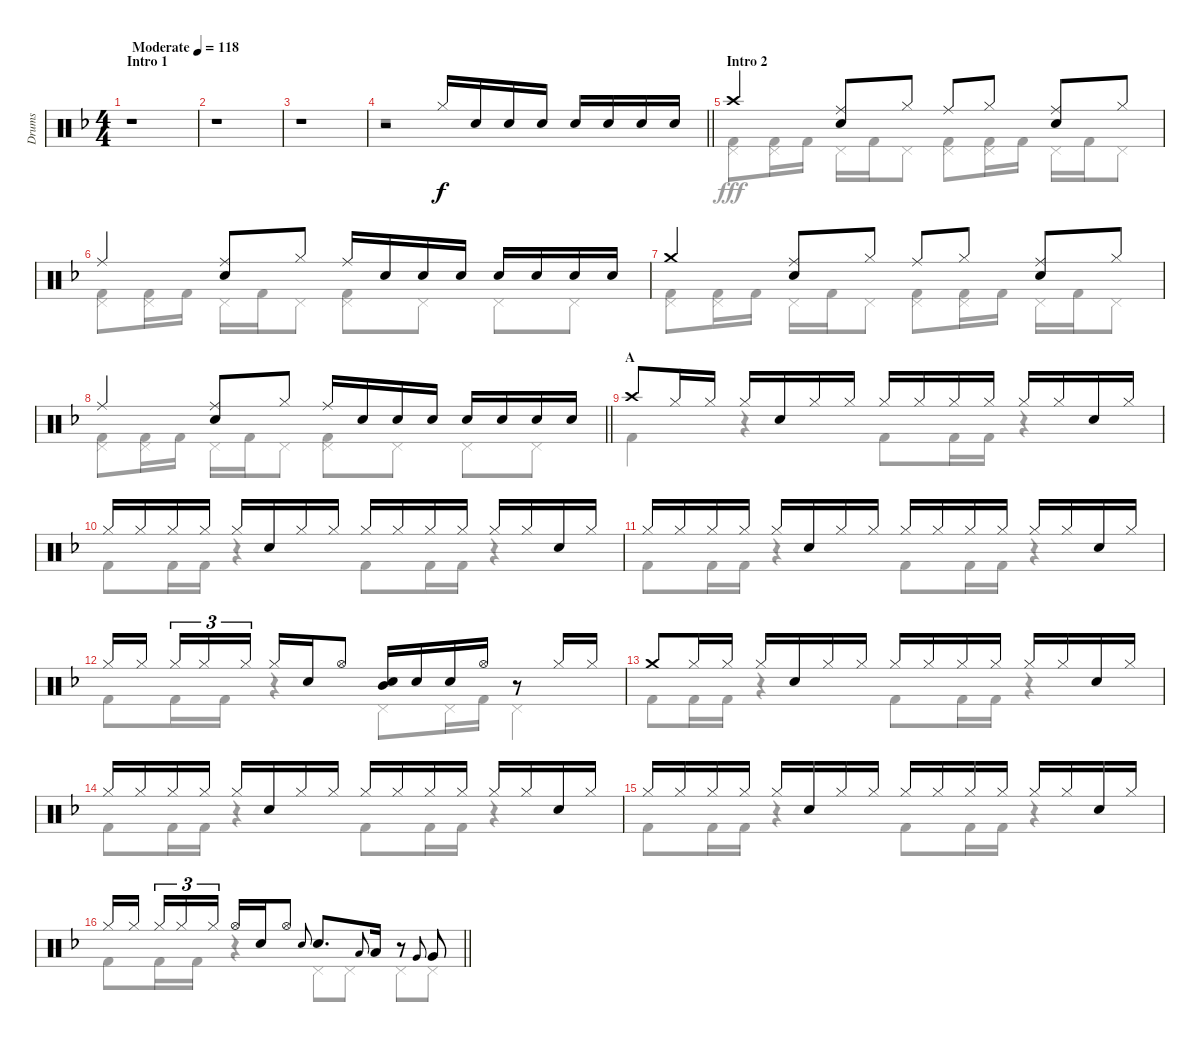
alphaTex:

\track ("Drums" "Drums") {instrument percussion}
\staff {score}
\articulation defaults
\voice
\ts (4 4)
\section ("" "Intro 1")
\tempo (118 "Moderate")
\clef neutral
\ks f
r.1{dy f} |
r.1 |
r.1 |
\barLineRight lightlight
r.2 "Hi-Hat (closed)".16 "Snare (hit) 2".16 "Snare (hit) 2".16 "Snare (hit) 2".16 "Snare (hit) 2".16 "Snare (hit) 2".16 "Snare (hit) 2".16 "Snare (hit) 2".16 |
\section ("" "Intro 2")
"Crash high (hit)".4 ("Ride (middle)" "Snare (hit) 2").8 "Hi-Hat (closed)".8 "Ride (middle)".8 "Hi-Hat (closed)".8 ("Ride (middle)" "Snare (hit) 2").8 "Hi-Hat (closed)".8 |
"Ride (middle)".4 ("Ride (middle)" "Snare (hit) 2").8 "Hi-Hat (closed)".8 "Ride (middle)".16 "Snare (hit) 2".16 "Snare (hit) 2".16 "Snare (hit) 2".16 "Snare (hit) 2".16 "Snare (hit) 2".16 "Snare (hit) 2".16 "Snare (hit) 2".16 |
"Crash medium (hit)".4 ("Ride (middle)" "Snare (hit) 2").8 "Hi-Hat (closed)".8 "Ride (middle)".8 "Hi-Hat (closed)".8 ("Ride (middle)" "Snare (hit) 2").8 "Hi-Hat (closed)".8 |
\barLineRight lightlight "Ride (middle)".4
("Ride (middle)" "Snare (hit) 2").8 "Hi-Hat (closed)".8 "Ride (middle)".16 "Snare (hit) 2".16 "Snare (hit) 2".16 "Snare (hit) 2".16 "Snare (hit) 2".16 "Snare (hit) 2".16 "Snare (hit) 2".16 "Snare (hit) 2".16 |
\section ("" "A")
"Crash high (hit)".8 "Hi-Hat (closed)".16 "Hi-Hat (closed)".16 "Hi-Hat (closed)".16 "Snare (hit) 2".16 "Hi-Hat (closed)".16 "Hi-Hat (closed)".16 "Hi-Hat (closed)".16 "Hi-Hat (closed)".16 "Hi-Hat (closed)".16 "Hi-Hat (closed)".16 "Hi-Hat (closed)".16 "Hi-Hat (closed)".16 "Snare (hit) 2".16 "Hi-Hat (closed)".16 |
"Hi-Hat (closed)".16 "Hi-Hat (closed)".16 "Hi-Hat (closed)".16 "Hi-Hat (closed)".16 "Hi-Hat (closed)".16 "Snare (hit) 2".16 "Hi-Hat (closed)".16 "Hi-Hat (closed)".16 "Hi-Hat (closed)".16 "Hi-Hat (closed)".16 "Hi-Hat (closed)".16 "Hi-Hat (closed)".16 "Hi-Hat (closed)".16 "Hi-Hat (closed)".16 "Snare (hit) 2".16 "Hi-Hat (closed)".16 |
"Hi-Hat (closed)".16 "Hi-Hat (closed)".16 "Hi-Hat (closed)".16 "Hi-Hat (closed)".16 "Hi-Hat (closed)".16 "Snare (hit) 2".16 "Hi-Hat (closed)".16 "Hi-Hat (closed)".16 "Hi-Hat (closed)".16 "Hi-Hat (closed)".16 "Hi-Hat (closed)".16 "Hi-Hat (closed)".16 "Hi-Hat (closed)".16 "Hi-Hat (closed)".16 "Snare (hit) 2".16 "Hi-Hat (closed)".16 |
"Hi-Hat (closed)".16 "Hi-Hat (closed)".16{beam splitsecondary} "Hi-Hat (closed)".16{tu (3 2)} "Hi-Hat (closed)".16{tu (3 2)} "Hi-Hat (closed)".16{tu (3 2)} "Hi-Hat (closed)".16 "Snare (hit) 2".16 "Hi-Hat (open)".8 ("Mid Tom (hit)" "Snare (hit) 2").16 "Snare (hit) 2".16 "Snare (hit) 2".16 "Hi-Hat (open)".16 r.8 "Hi-Hat (closed)".16 "Hi-Hat (closed)".16 |
"Crash medium (hit)".8 "Hi-Hat (closed)".16 "Hi-Hat (closed)".16 "Hi-Hat (closed)".16 "Snare (hit) 2".16 "Hi-Hat (closed)".16 "Hi-Hat (closed)".16 "Hi-Hat (closed)".16 "Hi-Hat (closed)".16 "Hi-Hat (closed)".16 "Hi-Hat (closed)".16 "Hi-Hat (closed)".16 "Hi-Hat (closed)".16 "Snare (hit) 2".16 "Hi-Hat (closed)".16 |
"Hi-Hat (closed)".16 "Hi-Hat (closed)".16 "Hi-Hat (closed)".16 "Hi-Hat (closed)".16 "Hi-Hat (closed)".16 "Snare (hit) 2".16 "Hi-Hat (closed)".16 "Hi-Hat (closed)".16 "Hi-Hat (closed)".16 "Hi-Hat (closed)".16 "Hi-Hat (closed)".16 "Hi-Hat (closed)".16 "Hi-Hat (closed)".16 "Hi-Hat (closed)".16 "Snare (hit) 2".16 "Hi-Hat (closed)".16 |
"Hi-Hat (closed)".16 "Hi-Hat (closed)".16 "Hi-Hat (closed)".16 "Hi-Hat (closed)".16 "Hi-Hat (closed)".16 "Snare (hit) 2".16 "Hi-Hat (closed)".16 "Hi-Hat (closed)".16 "Hi-Hat (closed)".16 "Hi-Hat (closed)".16 "Hi-Hat (closed)".16 "Hi-Hat (closed)".16 "Hi-Hat (closed)".16 "Hi-Hat (closed)".16 "Snare (hit) 2".16 "Hi-Hat (closed)".16 |
\barLineRight lightlight "Hi-Hat (closed)".16 "Hi-Hat (closed)".16{beam splitsecondary} "Hi-Hat (closed)".16{tu (3 2)} "Hi-Hat (closed)".16{tu (3 2)} "Hi-Hat (closed)".16{tu (3 2)} "Hi-Hat (open)".16 "Snare (hit) 2".16 "Hi-Hat (open)".8 "Snare (hit) 2".8{gr onbeat} "Snare (hit) 2".8{d} "Low Tom (hit)".8{gr onbeat} "Low Tom (hit)".16
r.8 "Very Low Tom (hit)".8{gr onbeat} "Very Low Tom (hit)".8
\voice
\clef neutral
\ottava regular
\simile none
\ks f
r.1{dy fff} |
r.1 |
r.1 |
\barLineRight lightlight
r.1 |
("Pedal Hi-Hat (hit)" "Kick (hit) 2").8 ("Pedal Hi-Hat (hit)" "Kick (hit) 2").16 "Kick (hit) 2".16 "Pedal Hi-Hat (hit)".16 "Kick (hit) 2".16 "Pedal Hi-Hat (hit)".8 ("Pedal Hi-Hat (hit)" "Kick (hit) 2").8 ("Pedal Hi-Hat (hit)" "Kick (hit) 2").16 "Kick (hit) 2".16 "Pedal Hi-Hat (hit)".16 "Kick (hit) 2".16 "Pedal Hi-Hat (hit)".8 |
("Pedal Hi-Hat (hit)" "Kick (hit) 2").8 ("Pedal Hi-Hat (hit)" "Kick (hit) 2").16 "Kick (hit) 2".16 "Pedal Hi-Hat (hit)".16 "Kick (hit) 2".16 "Pedal Hi-Hat (hit)".8 ("Pedal Hi-Hat (hit)" "Kick (hit) 2").8 "Pedal Hi-Hat (hit)".8 "Pedal Hi-Hat (hit)".8 "Pedal Hi-Hat (hit)".8 |
("Pedal Hi-Hat (hit)" "Kick (hit) 2").8 ("Pedal Hi-Hat (hit)" "Kick (hit) 2").16 "Kick (hit) 2".16 "Pedal Hi-Hat (hit)".16 "Kick (hit) 2".16 "Pedal Hi-Hat (hit)".8 ("Pedal Hi-Hat (hit)" "Kick (hit) 2").8 ("Pedal Hi-Hat (hit)" "Kick (hit) 2").16 "Kick (hit) 2".16 "Pedal Hi-Hat (hit)".16 "Kick (hit) 2".16 "Pedal Hi-Hat (hit)".8 |
\barLineRight lightlight
("Pedal Hi-Hat (hit)" "Kick (hit) 2").8 ("Pedal Hi-Hat (hit)" "Kick (hit) 2").16 "Kick (hit) 2".16 "Pedal Hi-Hat (hit)".16 "Kick (hit) 2".16 "Pedal Hi-Hat (hit)".8 ("Pedal Hi-Hat (hit)" "Kick (hit) 2").8 "Pedal Hi-Hat (hit)".8 "Pedal Hi-Hat (hit)".8 "Pedal Hi-Hat (hit)".8 |
"Kick (hit) 2".4 r.4 "Kick (hit) 2".8 "Kick (hit) 2".16 "Kick (hit) 2".16 r.4 |
"Kick (hit) 2".8 "Kick (hit) 2".16 "Kick (hit) 2".16 r.4 "Kick (hit) 2".8 "Kick (hit) 2".16 "Kick (hit) 2".16 r.4 |
"Kick (hit) 2".8 "Kick (hit) 2".16 "Kick (hit) 2".16 r.4 "Kick (hit) 2".8 "Kick (hit) 2".16 "Kick (hit) 2".16 r.4 |
"Kick (hit) 2".8 "Kick (hit) 2".16 "Kick (hit) 2".16 r.4 "Pedal Hi-Hat (hit)".8 "Pedal Hi-Hat (hit)".16 "Kick (hit) 2".16 "Pedal Hi-Hat (hit)".4 |
"Kick (hit) 2".8 "Kick (hit) 2".16 "Kick (hit) 2".16 r.4 "Kick (hit) 2".8 "Kick (hit) 2".16 "Kick (hit) 2".16 r.4 |
"Kick (hit) 2".8 "Kick (hit) 2".16 "Kick (hit) 2".16 r.4 "Kick (hit) 2".8 "Kick (hit) 2".16 "Kick (hit) 2".16 r.4 |
"Kick (hit) 2".8 "Kick (hit) 2".16 "Kick (hit) 2".16 r.4 "Kick (hit) 2".8 "Kick (hit) 2".16 "Kick (hit) 2".16 r.4 |
\barLineRight lightlight "Kick (hit) 2".8 "Kick (hit) 2".16 "Kick (hit) 2".16
r.4 "Pedal Hi-Hat (hit)".8 "Pedal Hi-Hat (hit)".8 "Pedal Hi-Hat (hit)".8 "Pedal Hi-Hat (hit)".8
